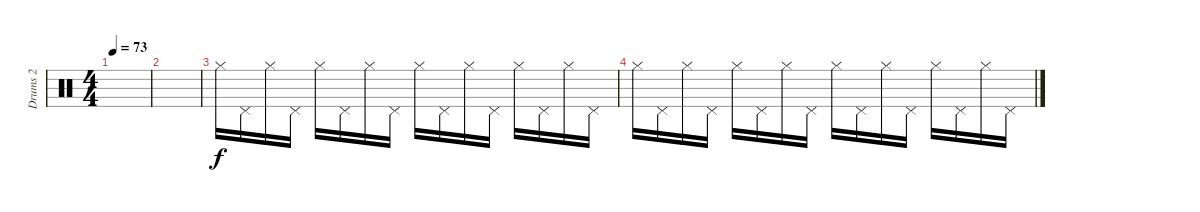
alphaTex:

\track ("Drums 2" "Drums 2") {instrument percussion}
\staff {score}
\articulation defaults
\ts (4 4)
\tempo 73
\clef neutral
\ks c
|
|
"Hi-Hat (closed)".16 "Pedal Hi-Hat (hit)".16 "Hi-Hat (closed)".16 "Pedal Hi-Hat (hit)".16 "Hi-Hat (closed)".16 "Pedal Hi-Hat (hit)".16 "Hi-Hat (closed)".16 "Pedal Hi-Hat (hit)".16 "Hi-Hat (closed)".16 "Pedal Hi-Hat (hit)".16 "Hi-Hat (closed)".16 "Pedal Hi-Hat (hit)".16 "Hi-Hat (closed)".16 "Pedal Hi-Hat (hit)".16 "Hi-Hat (closed)".16 "Pedal Hi-Hat (hit)".16 |
"Hi-Hat (closed)".16 "Pedal Hi-Hat (hit)".16 "Hi-Hat (closed)".16 "Pedal Hi-Hat (hit)".16 "Hi-Hat (closed)".16 "Pedal Hi-Hat (hit)".16 "Hi-Hat (closed)".16 "Pedal Hi-Hat (hit)".16 "Hi-Hat (closed)".16 "Pedal Hi-Hat (hit)".16 "Hi-Hat (closed)".16 "Pedal Hi-Hat (hit)".16 "Hi-Hat (closed)".16 "Pedal Hi-Hat (hit)".16 "Hi-Hat (closed)".16 "Pedal Hi-Hat (hit)".16
